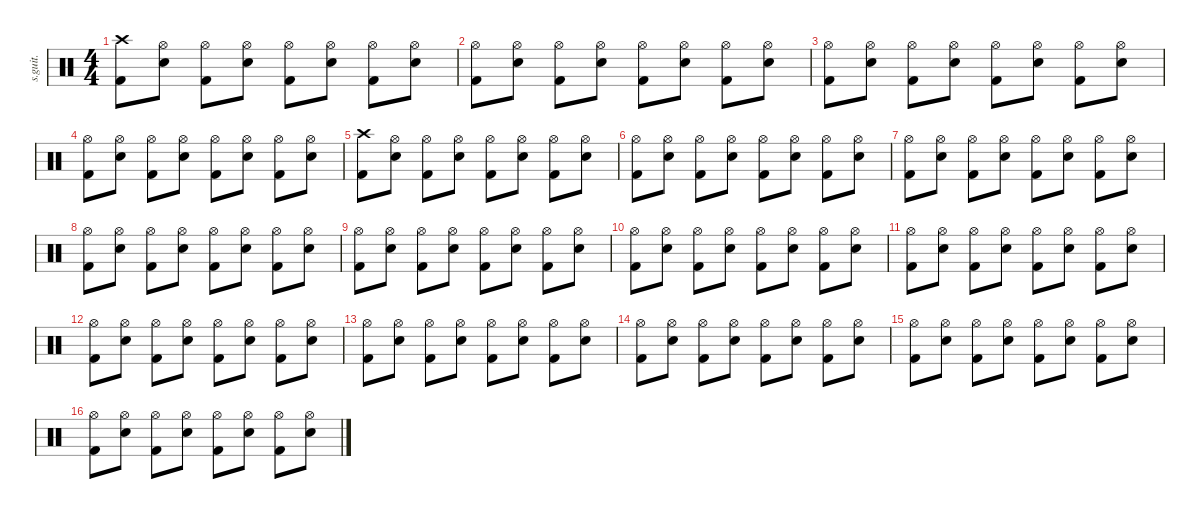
\defaultSystemsLayout 4
\hideDynamics
\bracketExtendMode nobrackets
\track ("" "s.guit.") {instrument percussion}
\staff {score}
\articulation defaults
\ts (4 4)
\tempo (160 hide)
\clef neutral
\ks c
("Crash high (hit)" "Kick (hit) 2").8{dy f} ("Hi-Hat (open)" "Snare (hit) 2").8 ("Hi-Hat (open)" "Kick (hit) 2").8 ("Hi-Hat (open)" "Snare (hit) 2").8 ("Hi-Hat (open)" "Kick (hit) 2").8 ("Hi-Hat (open)" "Snare (hit) 2").8 ("Hi-Hat (open)" "Kick (hit) 2").8 ("Hi-Hat (open)" "Snare (hit) 2").8 |
("Hi-Hat (open)" "Kick (hit) 2").8 ("Hi-Hat (open)" "Snare (hit) 2").8 ("Hi-Hat (open)" "Kick (hit) 2").8 ("Hi-Hat (open)" "Snare (hit) 2").8 ("Hi-Hat (open)" "Kick (hit) 2").8 ("Hi-Hat (open)" "Snare (hit) 2").8 ("Hi-Hat (open)" "Kick (hit) 2").8 ("Hi-Hat (open)" "Snare (hit) 2").8 |
("Hi-Hat (open)" "Kick (hit) 2").8 ("Hi-Hat (open)" "Snare (hit) 2").8 ("Hi-Hat (open)" "Kick (hit) 2").8 ("Hi-Hat (open)" "Snare (hit) 2").8 ("Hi-Hat (open)" "Kick (hit) 2").8 ("Hi-Hat (open)" "Snare (hit) 2").8 ("Hi-Hat (open)" "Kick (hit) 2").8 ("Hi-Hat (open)" "Snare (hit) 2").8 |
("Hi-Hat (open)" "Kick (hit) 2").8 ("Hi-Hat (open)" "Snare (hit) 2").8 ("Hi-Hat (open)" "Kick (hit) 2").8 ("Hi-Hat (open)" "Snare (hit) 2").8 ("Hi-Hat (open)" "Kick (hit) 2").8 ("Hi-Hat (open)" "Snare (hit) 2").8 ("Hi-Hat (open)" "Kick (hit) 2").8 ("Hi-Hat (open)" "Snare (hit) 2").8 |
("Crash high (hit)" "Kick (hit) 2").8 ("Hi-Hat (open)" "Snare (hit) 2").8 ("Hi-Hat (open)" "Kick (hit) 2").8 ("Hi-Hat (open)" "Snare (hit) 2").8 ("Hi-Hat (open)" "Kick (hit) 2").8 ("Hi-Hat (open)" "Snare (hit) 2").8 ("Hi-Hat (open)" "Kick (hit) 2").8 ("Hi-Hat (open)" "Snare (hit) 2").8 |
("Hi-Hat (open)" "Kick (hit) 2").8 ("Hi-Hat (open)" "Snare (hit) 2").8 ("Hi-Hat (open)" "Kick (hit) 2").8 ("Hi-Hat (open)" "Snare (hit) 2").8 ("Hi-Hat (open)" "Kick (hit) 2").8 ("Hi-Hat (open)" "Snare (hit) 2").8 ("Hi-Hat (open)" "Kick (hit) 2").8 ("Hi-Hat (open)" "Snare (hit) 2").8 |
("Hi-Hat (open)" "Kick (hit) 2").8 ("Hi-Hat (open)" "Snare (hit) 2").8 ("Hi-Hat (open)" "Kick (hit) 2").8 ("Hi-Hat (open)" "Snare (hit) 2").8 ("Hi-Hat (open)" "Kick (hit) 2").8 ("Hi-Hat (open)" "Snare (hit) 2").8 ("Hi-Hat (open)" "Kick (hit) 2").8 ("Hi-Hat (open)" "Snare (hit) 2").8 |
("Hi-Hat (open)" "Kick (hit) 2").8 ("Hi-Hat (open)" "Snare (hit) 2").8 ("Hi-Hat (open)" "Kick (hit) 2").8 ("Hi-Hat (open)" "Snare (hit) 2").8 ("Hi-Hat (open)" "Kick (hit) 2").8 ("Hi-Hat (open)" "Snare (hit) 2").8 ("Hi-Hat (open)" "Kick (hit) 2").8 ("Hi-Hat (open)" "Snare (hit) 2").8 |
("Hi-Hat (open)" "Kick (hit) 2").8 ("Hi-Hat (open)" "Snare (hit) 2").8 ("Hi-Hat (open)" "Kick (hit) 2").8 ("Hi-Hat (open)" "Snare (hit) 2").8 ("Hi-Hat (open)" "Kick (hit) 2").8 ("Hi-Hat (open)" "Snare (hit) 2").8 ("Hi-Hat (open)" "Kick (hit) 2").8 ("Hi-Hat (open)" "Snare (hit) 2").8 |
("Hi-Hat (open)" "Kick (hit) 2").8 ("Hi-Hat (open)" "Snare (hit) 2").8 ("Hi-Hat (open)" "Kick (hit) 2").8 ("Hi-Hat (open)" "Snare (hit) 2").8 ("Hi-Hat (open)" "Kick (hit) 2").8 ("Hi-Hat (open)" "Snare (hit) 2").8 ("Hi-Hat (open)" "Kick (hit) 2").8 ("Hi-Hat (open)" "Snare (hit) 2").8 |
("Hi-Hat (open)" "Kick (hit) 2").8 ("Hi-Hat (open)" "Snare (hit) 2").8 ("Hi-Hat (open)" "Kick (hit) 2").8 ("Hi-Hat (open)" "Snare (hit) 2").8 ("Hi-Hat (open)" "Kick (hit) 2").8 ("Hi-Hat (open)" "Snare (hit) 2").8 ("Hi-Hat (open)" "Kick (hit) 2").8 ("Hi-Hat (open)" "Snare (hit) 2").8 |
("Hi-Hat (open)" "Kick (hit) 2").8 ("Hi-Hat (open)" "Snare (hit) 2").8 ("Hi-Hat (open)" "Kick (hit) 2").8 ("Hi-Hat (open)" "Snare (hit) 2").8 ("Hi-Hat (open)" "Kick (hit) 2").8 ("Hi-Hat (open)" "Snare (hit) 2").8 ("Hi-Hat (open)" "Kick (hit) 2").8 ("Hi-Hat (open)" "Snare (hit) 2").8 |
("Hi-Hat (open)" "Kick (hit) 2").8 ("Hi-Hat (open)" "Snare (hit) 2").8 ("Hi-Hat (open)" "Kick (hit) 2").8 ("Hi-Hat (open)" "Snare (hit) 2").8 ("Hi-Hat (open)" "Kick (hit) 2").8 ("Hi-Hat (open)" "Snare (hit) 2").8 ("Hi-Hat (open)" "Kick (hit) 2").8 ("Hi-Hat (open)" "Snare (hit) 2").8 |
("Hi-Hat (open)" "Kick (hit) 2").8 ("Hi-Hat (open)" "Snare (hit) 2").8 ("Hi-Hat (open)" "Kick (hit) 2").8 ("Hi-Hat (open)" "Snare (hit) 2").8 ("Hi-Hat (open)" "Kick (hit) 2").8 ("Hi-Hat (open)" "Snare (hit) 2").8 ("Hi-Hat (open)" "Kick (hit) 2").8 ("Hi-Hat (open)" "Snare (hit) 2").8 |
("Hi-Hat (open)" "Kick (hit) 2").8 ("Hi-Hat (open)" "Snare (hit) 2").8 ("Hi-Hat (open)" "Kick (hit) 2").8 ("Hi-Hat (open)" "Snare (hit) 2").8 ("Hi-Hat (open)" "Kick (hit) 2").8 ("Hi-Hat (open)" "Snare (hit) 2").8 ("Hi-Hat (open)" "Kick (hit) 2").8 ("Hi-Hat (open)" "Snare (hit) 2").8 |
("Hi-Hat (open)" "Kick (hit) 2").8 ("Hi-Hat (open)" "Snare (hit) 2").8 ("Hi-Hat (open)" "Kick (hit) 2").8 ("Hi-Hat (open)" "Snare (hit) 2").8 ("Hi-Hat (open)" "Kick (hit) 2").8 ("Hi-Hat (open)" "Snare (hit) 2").8 ("Hi-Hat (open)" "Kick (hit) 2").8 ("Hi-Hat (open)" "Snare (hit) 2").8
